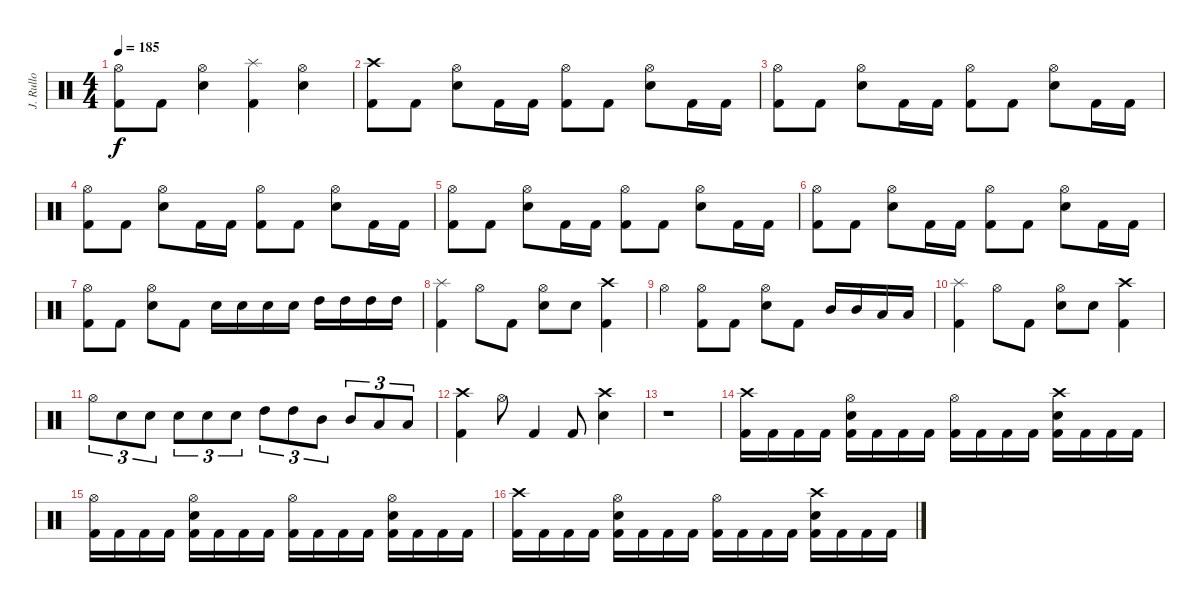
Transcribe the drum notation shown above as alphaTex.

\track ("J. Rullo" "J. Rullo") {instrument percussion}
\staff {score}
\articulation defaults
\ts (4 4)
\tempo 185
\clef neutral
\ks c
("Hi-Hat (open)" "Kick (hit) 2").8{dy f} "Kick (hit) 2".8 ("Hi-Hat (open)" "Snare (hit) 2").4 ("Splash (hit)" "Kick (hit) 2").4 ("Hi-Hat (open)" "Snare (hit) 2").4 |
("Crash high (hit)" "Kick (hit) 2").8 "Kick (hit) 2".8 ("Hi-Hat (open)" "Snare (hit) 2").8 "Kick (hit) 2".16 "Kick (hit) 2".16 ("Hi-Hat (open)" "Kick (hit) 2").8 "Kick (hit) 2".8 ("Hi-Hat (open)" "Snare (hit) 2").8 "Kick (hit) 2".16 "Kick (hit) 2".16 |
("Hi-Hat (open)" "Kick (hit) 2").8 "Kick (hit) 2".8 ("Hi-Hat (open)" "Snare (hit) 2").8 "Kick (hit) 2".16 "Kick (hit) 2".16 ("Hi-Hat (open)" "Kick (hit) 2").8 "Kick (hit) 2".8 ("Hi-Hat (open)" "Snare (hit) 2").8 "Kick (hit) 2".16 "Kick (hit) 2".16 |
("Hi-Hat (open)" "Kick (hit) 2").8 "Kick (hit) 2".8 ("Hi-Hat (open)" "Snare (hit) 2").8 "Kick (hit) 2".16 "Kick (hit) 2".16 ("Hi-Hat (open)" "Kick (hit) 2").8 "Kick (hit) 2".8 ("Hi-Hat (open)" "Snare (hit) 2").8 "Kick (hit) 2".16 "Kick (hit) 2".16 |
("Hi-Hat (open)" "Kick (hit) 2").8 "Kick (hit) 2".8 ("Hi-Hat (open)" "Snare (hit) 2").8 "Kick (hit) 2".16 "Kick (hit) 2".16 ("Hi-Hat (open)" "Kick (hit) 2").8 "Kick (hit) 2".8 ("Hi-Hat (open)" "Snare (hit) 2").8 "Kick (hit) 2".16 "Kick (hit) 2".16 |
("Hi-Hat (open)" "Kick (hit) 2").8 "Kick (hit) 2".8 ("Hi-Hat (open)" "Snare (hit) 2").8 "Kick (hit) 2".16 "Kick (hit) 2".16 ("Hi-Hat (open)" "Kick (hit) 2").8 "Kick (hit) 2".8 ("Hi-Hat (open)" "Snare (hit) 2").8 "Kick (hit) 2".16 "Kick (hit) 2".16 |
("Hi-Hat (open)" "Kick (hit) 2").8 "Kick (hit) 2".8 ("Hi-Hat (open)" "Snare (hit) 2").8 "Kick (hit) 2".8 "Snare (hit) 2".16 "Snare (hit) 2".16 "Snare (hit) 2".16 "Snare (hit) 2".16 "High Tom (hit)".16 "High Tom (hit)".16 "High Tom (hit)".16 "High Tom (hit)".16 |
("Splash (hit)" "Kick (hit) 2").4 "Hi-Hat (open)".8 "Kick (hit) 2".8 ("Hi-Hat (open)" "Snare (hit) 2").8 "Snare (hit) 2".8 ("Crash high (hit)" "Kick (hit) 2").4 |
"Hi-Hat (open)".4 ("Hi-Hat (open)" "Kick (hit) 2").8 "Kick (hit) 2".8 ("Hi-Hat (open)" "Snare (hit) 2").8 "Kick (hit) 2".8 "Mid Tom (hit)".16 "Mid Tom (hit)".16 "Low Tom (hit)".16 "Low Tom (hit)".16 |
("Splash (hit)" "Kick (hit) 2").4 "Hi-Hat (open)".8 "Kick (hit) 2".8 ("Hi-Hat (open)" "Snare (hit) 2").8 "Snare (hit) 2".8 ("Crash high (hit)" "Kick (hit) 2").4 |
"Hi-Hat (open)".8{tu (3 2)} "Snare (hit) 2".8{tu (3 2)} "Snare (hit) 2".8{tu (3 2)} "Snare (hit) 2".8{tu (3 2)} "Snare (hit) 2".8{tu (3 2)} "Snare (hit) 2".8{tu (3 2)} "High Tom (hit)".8{tu (3 2)} "High Tom (hit)".8{tu (3 2)} "Mid Tom (hit)".8{tu (3 2)} "Mid Tom (hit)".8{tu (3 2)} "Low Tom (hit)".8{tu (3 2)} "Low Tom (hit)".8{tu (3 2)} |
("Crash high (hit)" "Kick (hit) 2").4 "Hi-Hat (open)".8 "Kick (hit) 2".4 "Kick (hit) 2".8 ("Crash high (hit)" "Snare (hit) 2").4 |
r.1 |
("Crash high (hit)" "Kick (hit) 2").16 "Kick (hit) 2".16 "Kick (hit) 2".16 "Kick (hit) 2".16 ("Hi-Hat (open)" "Snare (hit) 2" "Kick (hit) 2").16 "Kick (hit) 2".16 "Kick (hit) 2".16 "Kick (hit) 2".16 ("Hi-Hat (open)" "Kick (hit) 2").16 "Kick (hit) 2".16 "Kick (hit) 2".16 "Kick (hit) 2".16 ("Crash high (hit)" "Snare (hit) 2" "Kick (hit) 2").16 "Kick (hit) 2".16 "Kick (hit) 2".16 "Kick (hit) 2".16 |
("Hi-Hat (open)" "Kick (hit) 2").16 "Kick (hit) 2".16 "Kick (hit) 2".16 "Kick (hit) 2".16 ("Hi-Hat (open)" "Snare (hit) 2" "Kick (hit) 2").16 "Kick (hit) 2".16 "Kick (hit) 2".16 "Kick (hit) 2".16 ("Hi-Hat (open)" "Kick (hit) 2").16 "Kick (hit) 2".16 "Kick (hit) 2".16 "Kick (hit) 2".16 ("Hi-Hat (open)" "Snare (hit) 2" "Kick (hit) 2").16 "Kick (hit) 2".16 "Kick (hit) 2".16 "Kick (hit) 2".16 |
("Crash high (hit)" "Kick (hit) 2").16 "Kick (hit) 2".16 "Kick (hit) 2".16 "Kick (hit) 2".16 ("Hi-Hat (open)" "Snare (hit) 2" "Kick (hit) 2").16 "Kick (hit) 2".16 "Kick (hit) 2".16 "Kick (hit) 2".16 ("Hi-Hat (open)" "Kick (hit) 2").16 "Kick (hit) 2".16 "Kick (hit) 2".16 "Kick (hit) 2".16 ("Crash high (hit)" "Snare (hit) 2" "Kick (hit) 2").16 "Kick (hit) 2".16 "Kick (hit) 2".16 "Kick (hit) 2".16
